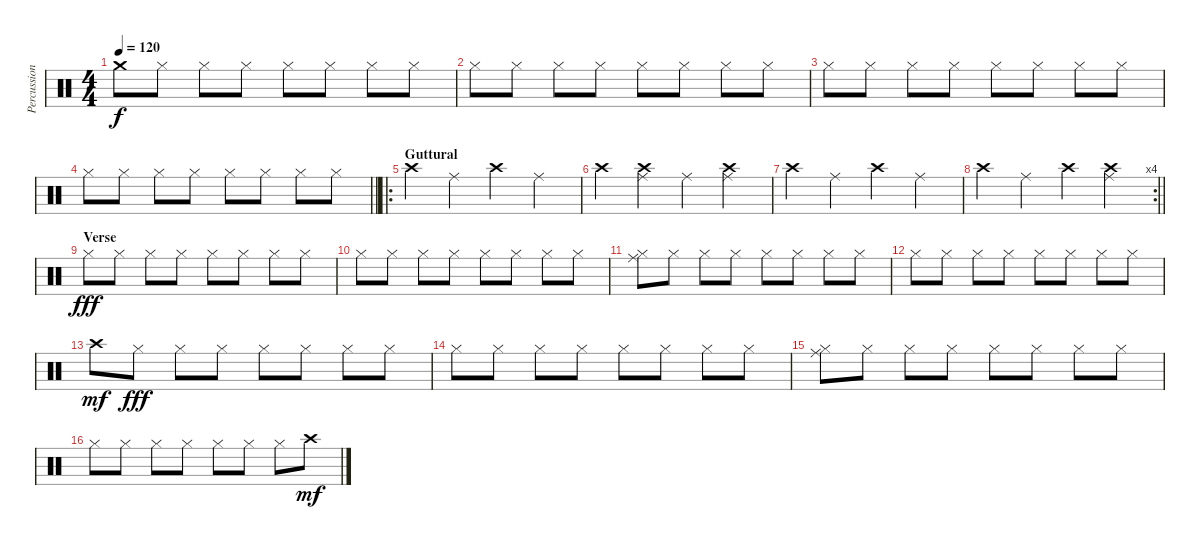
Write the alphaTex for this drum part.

\track ("Percussion 2" "Percussion") {instrument percussion}
\staff {score}
\articulation defaults
\ts (4 4)
\tempo 120
\clef neutral
\ks c "Crash medium (hit)".8{dy f} "Hi-Hat (closed)".8 "Hi-Hat (closed)".8 "Hi-Hat (closed)".8 "Hi-Hat (closed)".8 "Hi-Hat (closed)".8 "Hi-Hat (closed)".8 "Hi-Hat (closed)".8
|
"Hi-Hat (closed)".8 "Hi-Hat (closed)".8 "Hi-Hat (closed)".8 "Hi-Hat (closed)".8 "Hi-Hat (closed)".8 "Hi-Hat (closed)".8 "Hi-Hat (closed)".8 "Hi-Hat (closed)".8 |
"Hi-Hat (closed)".8 "Hi-Hat (closed)".8 "Hi-Hat (closed)".8 "Hi-Hat (closed)".8 "Hi-Hat (closed)".8 "Hi-Hat (closed)".8 "Hi-Hat (closed)".8 "Hi-Hat (closed)".8 |
\barLineRight lightlight "Hi-Hat (closed)".8 "Hi-Hat (closed)".8 "Hi-Hat (closed)".8 "Hi-Hat (closed)".8 "Hi-Hat (closed)".8 "Hi-Hat (closed)".8 "Hi-Hat (closed)".8 "Hi-Hat (closed)".8
|
\ro
\section ("" "Guttural")
"Crash high (hit)".4 "Ride (middle)".4 "Crash high (hit)".4 "Ride (middle)".4 |
"Crash high (hit)".4 ("Ride (middle)" "Crash high (hit)").4 "Ride (middle)".4 ("Ride (middle)" "Crash high (hit)").4 |
"Crash high (hit)".4 "Ride (middle)".4 "Crash high (hit)".4 "Ride (middle)".4 |
\rc 4
\barLineRight lightlight "Crash high (hit)".4 "Ride (middle)".4 "Crash high (hit)".4
("Ride (middle)" "Crash high (hit)").4 |
\section ("" "Verse")
"Hi-Hat (closed)".8{dy fff} "Hi-Hat (closed)".8 "Hi-Hat (closed)".8 "Hi-Hat (closed)".8 "Hi-Hat (closed)".8 "Hi-Hat (closed)".8 "Hi-Hat (closed)".8 "Hi-Hat (closed)".8 |
"Hi-Hat (closed)".8 "Hi-Hat (closed)".8 "Hi-Hat (closed)".8 "Hi-Hat (closed)".8 "Hi-Hat (closed)".8 "Hi-Hat (closed)".8 "Hi-Hat (closed)".8 "Hi-Hat (closed)".8 |
("Hi-Hat (closed)" "Ride (middle)").8 "Hi-Hat (closed)".8 "Hi-Hat (closed)".8 "Hi-Hat (closed)".8 "Hi-Hat (closed)".8 "Hi-Hat (closed)".8 "Hi-Hat (closed)".8 "Hi-Hat (closed)".8 |
"Hi-Hat (closed)".8 "Hi-Hat (closed)".8 "Hi-Hat (closed)".8 "Hi-Hat (closed)".8 "Hi-Hat (closed)".8 "Hi-Hat (closed)".8 "Hi-Hat (closed)".8 "Hi-Hat (closed)".8 |
"Crash high (hit)".8{dy mf} "Hi-Hat (closed)".8{dy fff} "Hi-Hat (closed)".8 "Hi-Hat (closed)".8 "Hi-Hat (closed)".8 "Hi-Hat (closed)".8 "Hi-Hat (closed)".8 "Hi-Hat (closed)".8 |
"Hi-Hat (closed)".8 "Hi-Hat (closed)".8 "Hi-Hat (closed)".8 "Hi-Hat (closed)".8 "Hi-Hat (closed)".8 "Hi-Hat (closed)".8 "Hi-Hat (closed)".8 "Hi-Hat (closed)".8 |
("Hi-Hat (closed)" "Ride (middle)").8 "Hi-Hat (closed)".8 "Hi-Hat (closed)".8 "Hi-Hat (closed)".8 "Hi-Hat (closed)".8 "Hi-Hat (closed)".8 "Hi-Hat (closed)".8 "Hi-Hat (closed)".8 |
"Hi-Hat (closed)".8 "Hi-Hat (closed)".8 "Hi-Hat (closed)".8 "Hi-Hat (closed)".8 "Hi-Hat (closed)".8 "Hi-Hat (closed)".8 "Hi-Hat (closed)".8 "Crash high (hit)".8{dy mf}
